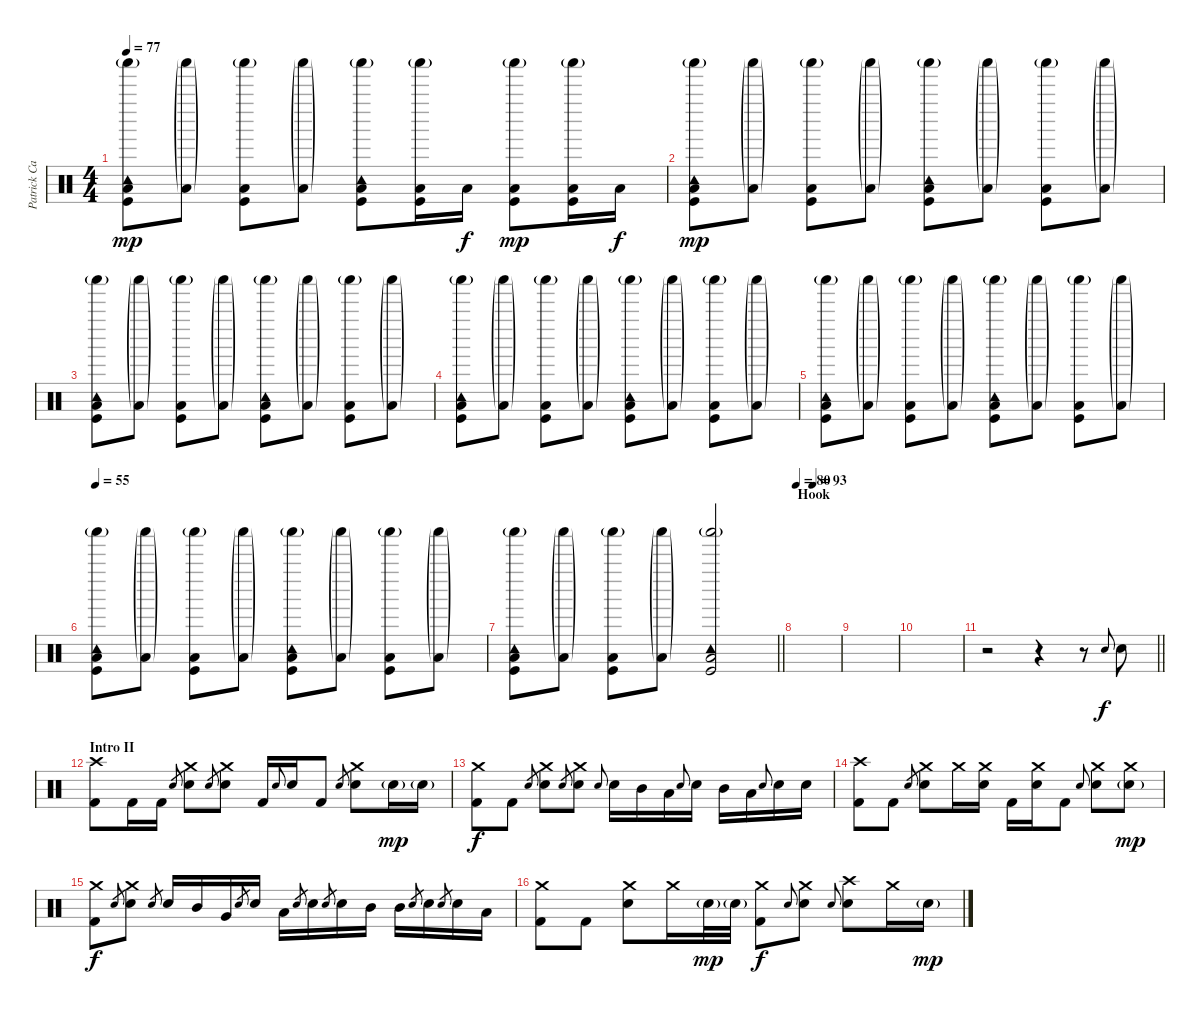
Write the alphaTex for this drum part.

\track ("Patrick Carney [Drums]" "Patrick Ca") {instrument percussion}
\staff {score}
\articulation defaults
\ts (4 4)
\tempo 77
\clef neutral
\ks c
("Tambourine (hit)" "Shaker (hit)"{g} "Low Floor Tom (hit)" "Kick (hit)").8{dy mp} ("Shaker (hit)"{g} "Low Floor Tom (hit)"{g}).8 ("Shaker (hit)"{g} "Low Floor Tom (hit)" "Kick (hit)").8 ("Shaker (hit)"{g} "Low Floor Tom (hit)"{g}).8 ("Tambourine (hit)" "Shaker (hit)"{g} "Low Floor Tom (hit)" "Kick (hit)").8 ("Shaker (hit)"{g} "Low Floor Tom (hit)" "Kick (hit)").16 "Low Floor Tom (hit)".16{dy f} ("Shaker (hit)"{g} "Low Floor Tom (hit)" "Kick (hit)").8{dy mp} ("Shaker (hit)"{g} "Low Floor Tom (hit)" "Kick (hit)").16 "Low Floor Tom (hit)".16{dy f} |
("Tambourine (hit)" "Shaker (hit)"{g} "Low Floor Tom (hit)" "Kick (hit)").8{dy mp} ("Shaker (hit)"{g} "Low Floor Tom (hit)"{g}).8 ("Shaker (hit)"{g} "Low Floor Tom (hit)" "Kick (hit)").8 ("Shaker (hit)"{g} "Low Floor Tom (hit)"{g}).8 ("Tambourine (hit)" "Shaker (hit)"{g} "Low Floor Tom (hit)" "Kick (hit)").8 ("Shaker (hit)"{g} "Low Floor Tom (hit)"{g}).8 ("Shaker (hit)"{g} "Low Floor Tom (hit)" "Kick (hit)").8 ("Shaker (hit)"{g} "Low Floor Tom (hit)"{g}).8 |
("Tambourine (hit)" "Shaker (hit)"{g} "Low Floor Tom (hit)" "Kick (hit)").8 ("Shaker (hit)"{g} "Low Floor Tom (hit)"{g}).8 ("Shaker (hit)"{g} "Low Floor Tom (hit)" "Kick (hit)").8 ("Shaker (hit)"{g} "Low Floor Tom (hit)"{g}).8 ("Tambourine (hit)" "Shaker (hit)"{g} "Low Floor Tom (hit)" "Kick (hit)").8 ("Shaker (hit)"{g} "Low Floor Tom (hit)"{g}).8 ("Shaker (hit)"{g} "Low Floor Tom (hit)" "Kick (hit)").8 ("Shaker (hit)"{g} "Low Floor Tom (hit)"{g}).8 |
("Tambourine (hit)" "Shaker (hit)"{g} "Low Floor Tom (hit)" "Kick (hit)").8 ("Shaker (hit)"{g} "Low Floor Tom (hit)"{g}).8 ("Shaker (hit)"{g} "Low Floor Tom (hit)" "Kick (hit)").8 ("Shaker (hit)"{g} "Low Floor Tom (hit)"{g}).8 ("Tambourine (hit)" "Shaker (hit)"{g} "Low Floor Tom (hit)" "Kick (hit)").8 ("Shaker (hit)"{g} "Low Floor Tom (hit)"{g}).8 ("Shaker (hit)"{g} "Low Floor Tom (hit)" "Kick (hit)").8 ("Shaker (hit)"{g} "Low Floor Tom (hit)"{g}).8 |
("Tambourine (hit)" "Shaker (hit)"{g} "Low Floor Tom (hit)" "Kick (hit)").8 ("Shaker (hit)"{g} "Low Floor Tom (hit)"{g}).8 ("Shaker (hit)"{g} "Low Floor Tom (hit)" "Kick (hit)").8 ("Shaker (hit)"{g} "Low Floor Tom (hit)"{g}).8 ("Tambourine (hit)" "Shaker (hit)"{g} "Low Floor Tom (hit)" "Kick (hit)").8 ("Shaker (hit)"{g} "Low Floor Tom (hit)"{g}).8 ("Shaker (hit)"{g} "Low Floor Tom (hit)" "Kick (hit)").8 ("Shaker (hit)"{g} "Low Floor Tom (hit)"{g}).8 |
\tempo 55
("Tambourine (hit)" "Shaker (hit)"{g} "Low Floor Tom (hit)" "Kick (hit)").8 ("Shaker (hit)"{g} "Low Floor Tom (hit)"{g}).8 ("Shaker (hit)"{g} "Low Floor Tom (hit)" "Kick (hit)").8 ("Shaker (hit)"{g} "Low Floor Tom (hit)"{g}).8 ("Tambourine (hit)" "Shaker (hit)"{g} "Low Floor Tom (hit)" "Kick (hit)").8 ("Shaker (hit)"{g} "Low Floor Tom (hit)"{g}).8 ("Shaker (hit)"{g} "Low Floor Tom (hit)" "Kick (hit)").8 ("Shaker (hit)"{g} "Low Floor Tom (hit)"{g}).8 |
\barLineRight lightlight
("Tambourine (hit)" "Shaker (hit)"{g} "Low Floor Tom (hit)" "Kick (hit)").8 ("Shaker (hit)"{g} "Low Floor Tom (hit)"{g}).8 ("Shaker (hit)"{g} "Low Floor Tom (hit)" "Kick (hit)").8 ("Shaker (hit)"{g} "Low Floor Tom (hit)"{g}).8 ("Tambourine (hit)" "Shaker (hit)"{g} "Low Floor Tom (hit)" "Kick (hit)").2 |
\section ("" "Hook")
\tempo 80
\tempo (93 0.375)
|
|
|
\barLineRight lightlight
r.2 r.4 r.8 "Electric Snare (hit)".8{gr onbeat dy f} "Electric Snare (hit)".8{volume 16} |
\section ("" "Intro II")
("Crash high (hit)" "Kick (hit) 2").8 "Kick (hit) 2".16 "Kick (hit) 2".16 "Electric Snare (hit)".8{gr} ("Crash medium (hit)" "Electric Snare (hit)").8 "Electric Snare (hit)".8{gr} ("Crash medium (hit)" "Electric Snare (hit)").8 "Kick (hit) 2".16 "Electric Snare (hit)".8{gr onbeat} "Electric Snare (hit)".16 "Kick (hit) 2".8 "Electric Snare (hit)".8{gr} ("Crash medium (hit)" "Electric Snare (hit)").8 "Electric Snare (hit)"{g}.16{dy mp} "Electric Snare (hit)"{g}.16 |
("Crash medium (hit)" "Kick (hit) 2").8{dy f} "Kick (hit) 2".8 "Electric Snare (hit)".8{gr} ("Crash medium (hit)" "Electric Snare (hit)").8 "Electric Snare (hit)".8{gr} ("Crash medium (hit)" "Electric Snare (hit)").8 "Electric Snare (hit)".8{gr onbeat} "Electric Snare (hit)".16 "Mid Tom (hit)".16 "Low Floor Tom (hit)".16 "Electric Snare (hit)".8{gr onbeat} "Electric Snare (hit)".16 "Mid Tom (hit)".16 "Low Floor Tom (hit)".16 "Electric Snare (hit)".8{gr onbeat} "Electric Snare (hit)".16 "Electric Snare (hit)".16 |
("Crash high (hit)" "Kick (hit) 2").8 "Kick (hit) 2".8 "Electric Snare (hit)".8{gr} ("Crash medium (hit)" "Electric Snare (hit)").8 "Crash medium (hit)".16 ("Crash medium (hit)" "Electric Snare (hit)").16 "Kick (hit) 2".16 ("Crash medium (hit)" "Electric Snare (hit)").16 "Kick (hit) 2".8 "Electric Snare (hit)".8{gr onbeat} ("Crash medium (hit)" "Electric Snare (hit)").8 ("Crash medium (hit)" "Electric Snare (hit)"{g}).8{dy mp} |
("Crash medium (hit)" "Kick (hit) 2").8{dy f} "Electric Snare (hit)".8{gr} ("Crash medium (hit)" "Electric Snare (hit)").8 "Electric Snare (hit)".8{gr} "Electric Snare (hit)".16 "Mid Tom (hit)".16 "Very Low Tom (hit)".16 "Electric Snare (hit)".8{gr} "Electric Snare (hit)".16 "Low Floor Tom (hit)".16 "Electric Snare (hit)".8{gr} "Electric Snare (hit)".16 "Electric Snare (hit)".8{gr} "Electric Snare (hit)".16 "Mid Tom (hit)".16 "Mid Tom (hit)".16 "Electric Snare (hit)".8{gr} "Electric Snare (hit)".16 "Electric Snare (hit)".8{gr} "Electric Snare (hit)".16 "Low Floor Tom (hit)".16 |
("Crash medium (hit)" "Kick (hit) 2").8 "Kick (hit) 2".8 ("Crash medium (hit)" "Electric Snare (hit)").8 "Crash medium (hit)".16 "Electric Snare (hit)"{g}.32{dy mp} "Electric Snare (hit)"{g}.32 ("Crash medium (hit)" "Kick (hit) 2").8{dy f} "Electric Snare (hit)".8{gr onbeat} ("Crash medium (hit)" "Electric Snare (hit)").8 "Electric Snare (hit)".8{gr onbeat} ("Crash high (hit)" "Electric Snare (hit)").8 "Crash medium (hit)".16 "Electric Snare (hit)"{g}.16{dy mp}
